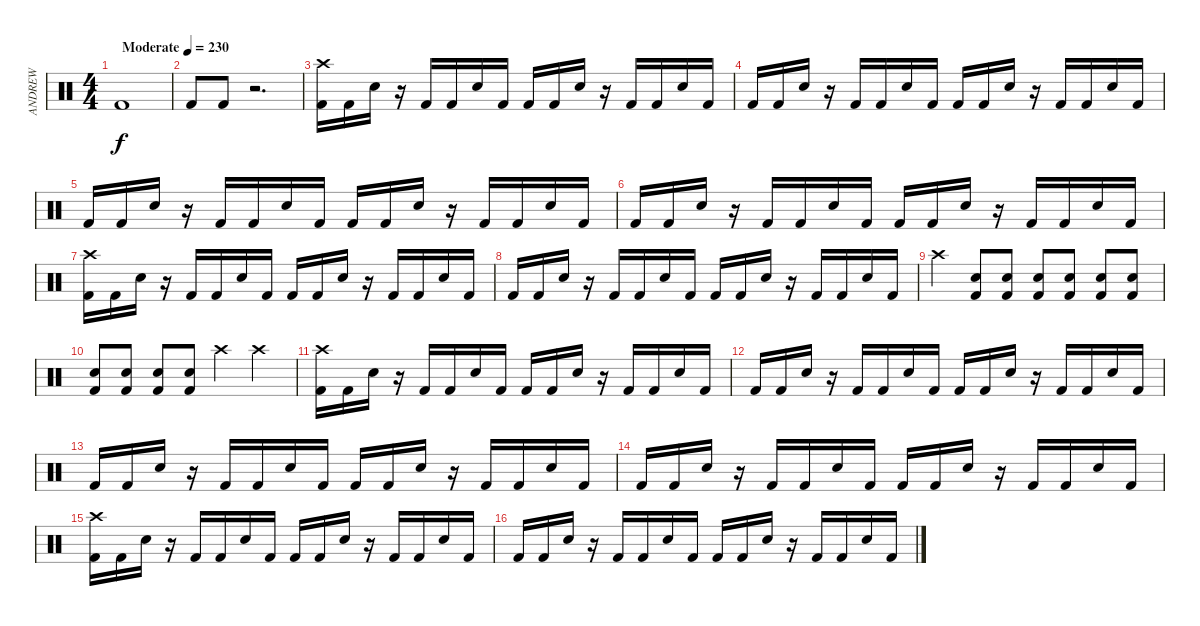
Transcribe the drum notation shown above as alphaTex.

\track ("ANDREW" "ANDREW") {instrument percussion}
\staff {score}
\articulation defaults
\ts (4 4)
\tempo (230 "Moderate")
\clef neutral
\ks c "Kick (hit) 2".1{dy f}
|
"Kick (hit) 2".8 "Kick (hit) 2".8 r.2{d} |
("Crash high (hit)" "Kick (hit) 2").16 "Kick (hit) 2".16 "Electric Snare (hit)".16 r.16 "Kick (hit) 2".16 "Kick (hit) 2".16 "Electric Snare (hit)".16 "Kick (hit) 2".16 "Kick (hit) 2".16 "Kick (hit) 2".16 "Electric Snare (hit)".16 r.16 "Kick (hit) 2".16 "Kick (hit) 2".16 "Electric Snare (hit)".16 "Kick (hit) 2".16 |
"Kick (hit) 2".16 "Kick (hit) 2".16 "Electric Snare (hit)".16 r.16 "Kick (hit) 2".16 "Kick (hit) 2".16 "Electric Snare (hit)".16 "Kick (hit) 2".16 "Kick (hit) 2".16 "Kick (hit) 2".16 "Electric Snare (hit)".16 r.16 "Kick (hit) 2".16 "Kick (hit) 2".16 "Electric Snare (hit)".16 "Kick (hit) 2".16 |
"Kick (hit) 2".16 "Kick (hit) 2".16 "Electric Snare (hit)".16 r.16 "Kick (hit) 2".16 "Kick (hit) 2".16 "Electric Snare (hit)".16 "Kick (hit) 2".16 "Kick (hit) 2".16 "Kick (hit) 2".16 "Electric Snare (hit)".16 r.16 "Kick (hit) 2".16 "Kick (hit) 2".16 "Electric Snare (hit)".16 "Kick (hit) 2".16 |
"Kick (hit) 2".16 "Kick (hit) 2".16 "Electric Snare (hit)".16 r.16 "Kick (hit) 2".16 "Kick (hit) 2".16 "Electric Snare (hit)".16 "Kick (hit) 2".16 "Kick (hit) 2".16 "Kick (hit) 2".16 "Electric Snare (hit)".16 r.16 "Kick (hit) 2".16 "Kick (hit) 2".16 "Electric Snare (hit)".16 "Kick (hit) 2".16 |
("Crash high (hit)" "Kick (hit) 2").16 "Kick (hit) 2".16 "Electric Snare (hit)".16 r.16 "Kick (hit) 2".16 "Kick (hit) 2".16 "Electric Snare (hit)".16 "Kick (hit) 2".16 "Kick (hit) 2".16 "Kick (hit) 2".16 "Electric Snare (hit)".16 r.16 "Kick (hit) 2".16 "Kick (hit) 2".16 "Electric Snare (hit)".16 "Kick (hit) 2".16 |
"Kick (hit) 2".16 "Kick (hit) 2".16 "Electric Snare (hit)".16 r.16 "Kick (hit) 2".16 "Kick (hit) 2".16 "Electric Snare (hit)".16 "Kick (hit) 2".16 "Kick (hit) 2".16 "Kick (hit) 2".16 "Electric Snare (hit)".16 r.16 "Kick (hit) 2".16 "Kick (hit) 2".16 "Electric Snare (hit)".16 "Kick (hit) 2".16 |
"Crash high (hit)".4 ("Electric Snare (hit)" "Kick (hit) 2").8 ("Electric Snare (hit)" "Kick (hit) 2").8 ("Electric Snare (hit)" "Kick (hit) 2").8 ("Electric Snare (hit)" "Kick (hit) 2").8 ("Electric Snare (hit)" "Kick (hit) 2").8 ("Electric Snare (hit)" "Kick (hit) 2").8 |
("Electric Snare (hit)" "Kick (hit) 2").8 ("Electric Snare (hit)" "Kick (hit) 2").8 ("Electric Snare (hit)" "Kick (hit) 2").8 ("Electric Snare (hit)" "Kick (hit) 2").8 "Crash high (hit)".4 "Crash high (hit)".4 |
("Crash high (hit)" "Kick (hit) 2").16 "Kick (hit) 2".16 "Electric Snare (hit)".16 r.16 "Kick (hit) 2".16 "Kick (hit) 2".16 "Electric Snare (hit)".16 "Kick (hit) 2".16 "Kick (hit) 2".16 "Kick (hit) 2".16 "Electric Snare (hit)".16 r.16 "Kick (hit) 2".16 "Kick (hit) 2".16 "Electric Snare (hit)".16 "Kick (hit) 2".16 |
"Kick (hit) 2".16 "Kick (hit) 2".16 "Electric Snare (hit)".16 r.16 "Kick (hit) 2".16 "Kick (hit) 2".16 "Electric Snare (hit)".16 "Kick (hit) 2".16 "Kick (hit) 2".16 "Kick (hit) 2".16 "Electric Snare (hit)".16 r.16 "Kick (hit) 2".16 "Kick (hit) 2".16 "Electric Snare (hit)".16 "Kick (hit) 2".16 |
"Kick (hit) 2".16 "Kick (hit) 2".16 "Electric Snare (hit)".16 r.16 "Kick (hit) 2".16 "Kick (hit) 2".16 "Electric Snare (hit)".16 "Kick (hit) 2".16 "Kick (hit) 2".16 "Kick (hit) 2".16 "Electric Snare (hit)".16 r.16 "Kick (hit) 2".16 "Kick (hit) 2".16 "Electric Snare (hit)".16 "Kick (hit) 2".16 |
"Kick (hit) 2".16 "Kick (hit) 2".16 "Electric Snare (hit)".16 r.16 "Kick (hit) 2".16 "Kick (hit) 2".16 "Electric Snare (hit)".16 "Kick (hit) 2".16 "Kick (hit) 2".16 "Kick (hit) 2".16 "Electric Snare (hit)".16 r.16 "Kick (hit) 2".16 "Kick (hit) 2".16 "Electric Snare (hit)".16 "Kick (hit) 2".16 |
("Crash high (hit)" "Kick (hit) 2").16 "Kick (hit) 2".16 "Electric Snare (hit)".16 r.16 "Kick (hit) 2".16 "Kick (hit) 2".16 "Electric Snare (hit)".16 "Kick (hit) 2".16 "Kick (hit) 2".16 "Kick (hit) 2".16 "Electric Snare (hit)".16 r.16 "Kick (hit) 2".16 "Kick (hit) 2".16 "Electric Snare (hit)".16 "Kick (hit) 2".16 |
"Kick (hit) 2".16 "Kick (hit) 2".16 "Electric Snare (hit)".16 r.16 "Kick (hit) 2".16 "Kick (hit) 2".16 "Electric Snare (hit)".16 "Kick (hit) 2".16 "Kick (hit) 2".16 "Kick (hit) 2".16 "Electric Snare (hit)".16 r.16 "Kick (hit) 2".16 "Kick (hit) 2".16 "Electric Snare (hit)".16 "Kick (hit) 2".16
